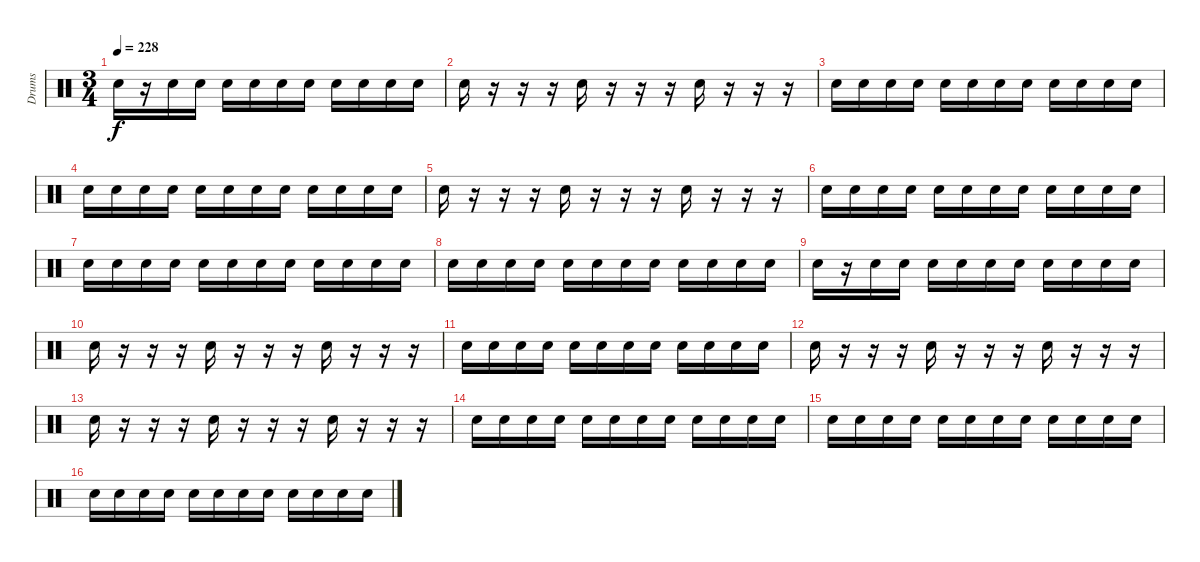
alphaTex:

\track ("Drums" "Drums") {instrument percussion}
\staff {score}
\articulation defaults
\ts (3 4)
\tempo 228
\clef neutral
\ks c "Snare (hit) 2".16{dy f}
r.16 "Snare (hit) 2".16 "Snare (hit) 2".16 "Snare (hit) 2".16 "Snare (hit) 2".16 "Snare (hit) 2".16 "Snare (hit) 2".16 "Snare (hit) 2".16 "Snare (hit) 2".16 "Snare (hit) 2".16 "Snare (hit) 2".16 |
"Snare (hit) 2".16 r.16 r.16 r.16 "Snare (hit) 2".16 r.16 r.16 r.16 "Snare (hit) 2".16 r.16 r.16 r.16 |
"Snare (hit) 2".16 "Snare (hit) 2".16 "Snare (hit) 2".16 "Snare (hit) 2".16 "Snare (hit) 2".16 "Snare (hit) 2".16 "Snare (hit) 2".16 "Snare (hit) 2".16 "Snare (hit) 2".16 "Snare (hit) 2".16 "Snare (hit) 2".16 "Snare (hit) 2".16 |
"Snare (hit) 2".16 "Snare (hit) 2".16 "Snare (hit) 2".16 "Snare (hit) 2".16 "Snare (hit) 2".16 "Snare (hit) 2".16 "Snare (hit) 2".16 "Snare (hit) 2".16 "Snare (hit) 2".16 "Snare (hit) 2".16 "Snare (hit) 2".16 "Snare (hit) 2".16 |
"Snare (hit) 2".16 r.16 r.16 r.16 "Snare (hit) 2".16 r.16 r.16 r.16 "Snare (hit) 2".16 r.16 r.16 r.16 |
"Snare (hit) 2".16 "Snare (hit) 2".16 "Snare (hit) 2".16 "Snare (hit) 2".16 "Snare (hit) 2".16 "Snare (hit) 2".16 "Snare (hit) 2".16 "Snare (hit) 2".16 "Snare (hit) 2".16 "Snare (hit) 2".16 "Snare (hit) 2".16 "Snare (hit) 2".16 |
"Snare (hit) 2".16 "Snare (hit) 2".16 "Snare (hit) 2".16 "Snare (hit) 2".16 "Snare (hit) 2".16 "Snare (hit) 2".16 "Snare (hit) 2".16 "Snare (hit) 2".16 "Snare (hit) 2".16 "Snare (hit) 2".16 "Snare (hit) 2".16 "Snare (hit) 2".16 |
"Snare (hit) 2".16 "Snare (hit) 2".16 "Snare (hit) 2".16 "Snare (hit) 2".16 "Snare (hit) 2".16 "Snare (hit) 2".16 "Snare (hit) 2".16 "Snare (hit) 2".16 "Snare (hit) 2".16 "Snare (hit) 2".16 "Snare (hit) 2".16 "Snare (hit) 2".16 |
"Snare (hit) 2".16 r.16 "Snare (hit) 2".16 "Snare (hit) 2".16 "Snare (hit) 2".16 "Snare (hit) 2".16 "Snare (hit) 2".16 "Snare (hit) 2".16 "Snare (hit) 2".16 "Snare (hit) 2".16 "Snare (hit) 2".16 "Snare (hit) 2".16 |
"Snare (hit) 2".16 r.16 r.16 r.16 "Snare (hit) 2".16 r.16 r.16 r.16 "Snare (hit) 2".16 r.16 r.16 r.16 |
"Snare (hit) 2".16 "Snare (hit) 2".16 "Snare (hit) 2".16 "Snare (hit) 2".16 "Snare (hit) 2".16 "Snare (hit) 2".16 "Snare (hit) 2".16 "Snare (hit) 2".16 "Snare (hit) 2".16 "Snare (hit) 2".16 "Snare (hit) 2".16 "Snare (hit) 2".16 |
"Snare (hit) 2".16 r.16 r.16 r.16 "Snare (hit) 2".16 r.16 r.16 r.16 "Snare (hit) 2".16 r.16 r.16 r.16 |
"Snare (hit) 2".16 r.16 r.16 r.16 "Snare (hit) 2".16 r.16 r.16 r.16 "Snare (hit) 2".16 r.16 r.16 r.16 |
"Snare (hit) 2".16 "Snare (hit) 2".16 "Snare (hit) 2".16 "Snare (hit) 2".16 "Snare (hit) 2".16 "Snare (hit) 2".16 "Snare (hit) 2".16 "Snare (hit) 2".16 "Snare (hit) 2".16 "Snare (hit) 2".16 "Snare (hit) 2".16 "Snare (hit) 2".16 |
"Snare (hit) 2".16 "Snare (hit) 2".16 "Snare (hit) 2".16 "Snare (hit) 2".16 "Snare (hit) 2".16 "Snare (hit) 2".16 "Snare (hit) 2".16 "Snare (hit) 2".16 "Snare (hit) 2".16 "Snare (hit) 2".16 "Snare (hit) 2".16 "Snare (hit) 2".16 |
"Snare (hit) 2".16 "Snare (hit) 2".16 "Snare (hit) 2".16 "Snare (hit) 2".16 "Snare (hit) 2".16 "Snare (hit) 2".16 "Snare (hit) 2".16 "Snare (hit) 2".16 "Snare (hit) 2".16 "Snare (hit) 2".16 "Snare (hit) 2".16 "Snare (hit) 2".16
